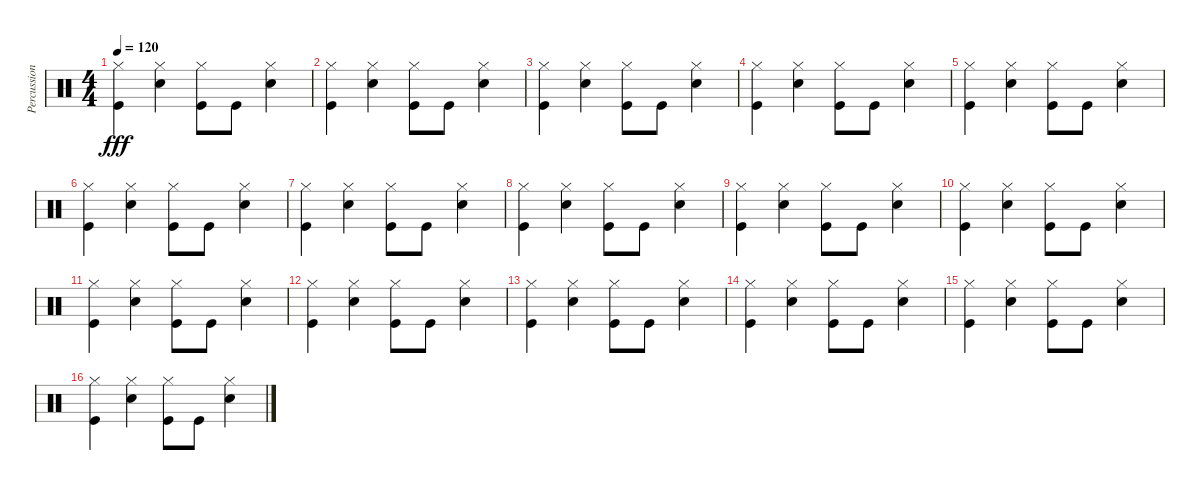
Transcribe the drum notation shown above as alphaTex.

\track ("Percussion" "Percussion") {instrument percussion}
\staff {score}
\articulation defaults
\ts (4 4)
\tempo 120
\clef neutral
\ks c
("Kick (hit)" "Hi-Hat (closed)").4{dy fff} ("Hi-Hat (closed)" "Snare (hit) 2").4 ("Kick (hit)" "Hi-Hat (closed)").8 "Kick (hit)".8 ("Hi-Hat (closed)" "Snare (hit) 2").4 |
("Kick (hit)" "Hi-Hat (closed)").4 ("Hi-Hat (closed)" "Snare (hit) 2").4 ("Kick (hit)" "Hi-Hat (closed)").8 "Kick (hit)".8 ("Hi-Hat (closed)" "Snare (hit) 2").4 |
("Kick (hit)" "Hi-Hat (closed)").4 ("Hi-Hat (closed)" "Snare (hit) 2").4 ("Kick (hit)" "Hi-Hat (closed)").8 "Kick (hit)".8 ("Hi-Hat (closed)" "Snare (hit) 2").4 |
("Kick (hit)" "Hi-Hat (closed)").4 ("Hi-Hat (closed)" "Snare (hit) 2").4 ("Kick (hit)" "Hi-Hat (closed)").8 "Kick (hit)".8 ("Hi-Hat (closed)" "Snare (hit) 2").4 |
("Kick (hit)" "Hi-Hat (closed)").4 ("Hi-Hat (closed)" "Snare (hit) 2").4 ("Kick (hit)" "Hi-Hat (closed)").8 "Kick (hit)".8 ("Hi-Hat (closed)" "Snare (hit) 2").4 |
("Kick (hit)" "Hi-Hat (closed)").4 ("Hi-Hat (closed)" "Snare (hit) 2").4 ("Kick (hit)" "Hi-Hat (closed)").8 "Kick (hit)".8 ("Hi-Hat (closed)" "Snare (hit) 2").4 |
("Kick (hit)" "Hi-Hat (closed)").4 ("Hi-Hat (closed)" "Snare (hit) 2").4 ("Kick (hit)" "Hi-Hat (closed)").8 "Kick (hit)".8 ("Hi-Hat (closed)" "Snare (hit) 2").4 |
("Kick (hit)" "Hi-Hat (closed)").4 ("Hi-Hat (closed)" "Snare (hit) 2").4 ("Kick (hit)" "Hi-Hat (closed)").8 "Kick (hit)".8 ("Hi-Hat (closed)" "Snare (hit) 2").4 |
("Kick (hit)" "Hi-Hat (closed)").4 ("Hi-Hat (closed)" "Snare (hit) 2").4 ("Kick (hit)" "Hi-Hat (closed)").8 "Kick (hit)".8 ("Hi-Hat (closed)" "Snare (hit) 2").4 |
("Kick (hit)" "Hi-Hat (closed)").4 ("Hi-Hat (closed)" "Snare (hit) 2").4 ("Kick (hit)" "Hi-Hat (closed)").8 "Kick (hit)".8 ("Hi-Hat (closed)" "Snare (hit) 2").4 |
("Kick (hit)" "Hi-Hat (closed)").4 ("Hi-Hat (closed)" "Snare (hit) 2").4 ("Kick (hit)" "Hi-Hat (closed)").8 "Kick (hit)".8 ("Hi-Hat (closed)" "Snare (hit) 2").4 |
("Kick (hit)" "Hi-Hat (closed)").4 ("Hi-Hat (closed)" "Snare (hit) 2").4 ("Kick (hit)" "Hi-Hat (closed)").8 "Kick (hit)".8 ("Hi-Hat (closed)" "Snare (hit) 2").4 |
("Kick (hit)" "Hi-Hat (closed)").4 ("Hi-Hat (closed)" "Snare (hit) 2").4 ("Kick (hit)" "Hi-Hat (closed)").8 "Kick (hit)".8 ("Hi-Hat (closed)" "Snare (hit) 2").4 |
("Kick (hit)" "Hi-Hat (closed)").4 ("Hi-Hat (closed)" "Snare (hit) 2").4 ("Kick (hit)" "Hi-Hat (closed)").8 "Kick (hit)".8 ("Hi-Hat (closed)" "Snare (hit) 2").4 |
("Kick (hit)" "Hi-Hat (closed)").4 ("Hi-Hat (closed)" "Snare (hit) 2").4 ("Kick (hit)" "Hi-Hat (closed)").8 "Kick (hit)".8 ("Hi-Hat (closed)" "Snare (hit) 2").4 |
("Kick (hit)" "Hi-Hat (closed)").4 ("Hi-Hat (closed)" "Snare (hit) 2").4 ("Kick (hit)" "Hi-Hat (closed)").8 "Kick (hit)".8 ("Hi-Hat (closed)" "Snare (hit) 2").4
